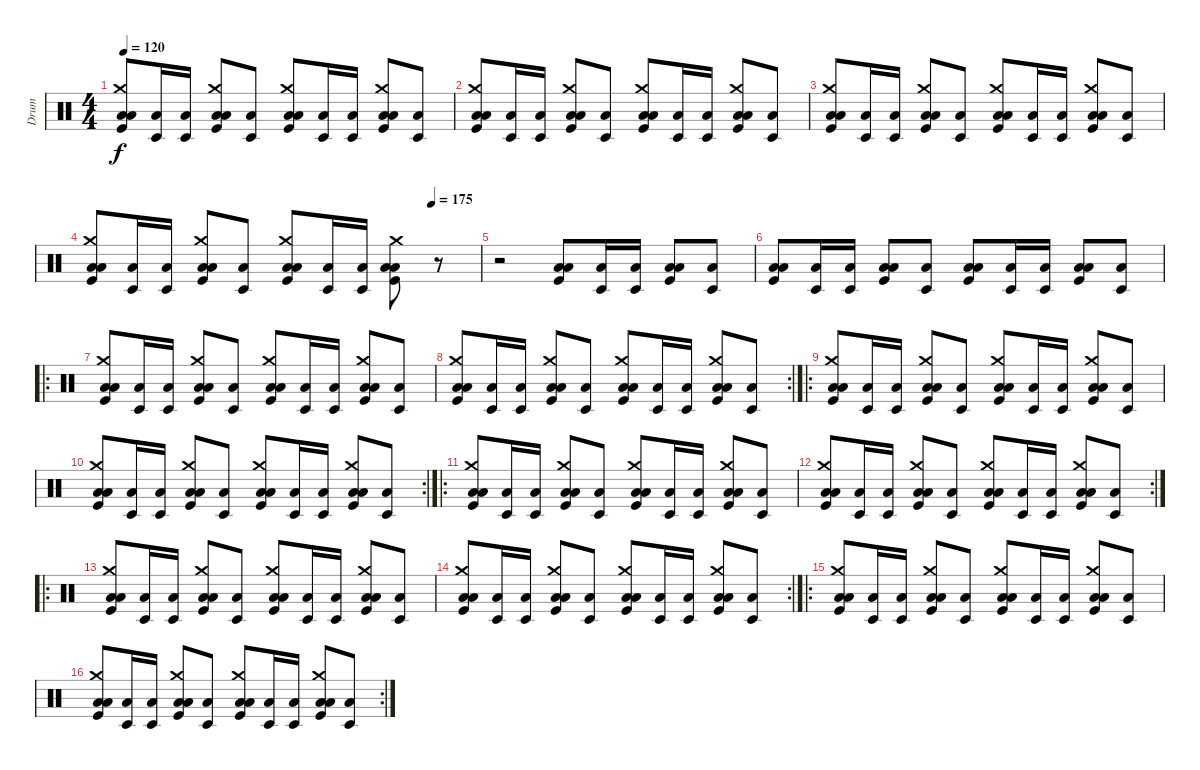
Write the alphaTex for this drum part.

\track ("Drum" "Drum") {instrument percussion}
\staff {score}
\articulation defaults
\ts (4 4)
\tempo 120
\clef neutral
\ks c
("Kick (hit)" "Low Tom (hit)" "Low Floor Tom (hit)" "Crash medium (hit)").8{dy f} ("Timbale low (hit)" "Low Tom (hit)").16 ("Timbale low (hit)" "Low Tom (hit)").16 ("Kick (hit)" "Low Tom (hit)" "Low Floor Tom (hit)" "Crash medium (hit)").8 ("Timbale low (hit)" "Low Tom (hit)").8 ("Kick (hit)" "Low Tom (hit)" "Low Floor Tom (hit)" "Crash medium (hit)").8 ("Timbale low (hit)" "Low Tom (hit)").16 ("Timbale low (hit)" "Low Tom (hit)").16 ("Kick (hit)" "Low Tom (hit)" "Low Floor Tom (hit)" "Crash medium (hit)").8 ("Timbale low (hit)" "Low Tom (hit)").8 |
("Kick (hit)" "Low Tom (hit)" "Low Floor Tom (hit)" "Crash medium (hit)").8 ("Timbale low (hit)" "Low Tom (hit)").16 ("Timbale low (hit)" "Low Tom (hit)").16 ("Kick (hit)" "Low Tom (hit)" "Low Floor Tom (hit)" "Crash medium (hit)").8 ("Timbale low (hit)" "Low Tom (hit)").8 ("Kick (hit)" "Low Tom (hit)" "Low Floor Tom (hit)" "Crash medium (hit)").8 ("Timbale low (hit)" "Low Tom (hit)").16 ("Timbale low (hit)" "Low Tom (hit)").16 ("Kick (hit)" "Low Tom (hit)" "Low Floor Tom (hit)" "Crash medium (hit)").8 ("Timbale low (hit)" "Low Tom (hit)").8 |
("Kick (hit)" "Low Tom (hit)" "Low Floor Tom (hit)" "Crash medium (hit)").8 ("Timbale low (hit)" "Low Tom (hit)").16 ("Timbale low (hit)" "Low Tom (hit)").16 ("Kick (hit)" "Low Tom (hit)" "Low Floor Tom (hit)" "Crash medium (hit)").8 ("Timbale low (hit)" "Low Tom (hit)").8 ("Kick (hit)" "Low Tom (hit)" "Low Floor Tom (hit)" "Crash medium (hit)").8 ("Timbale low (hit)" "Low Tom (hit)").16 ("Timbale low (hit)" "Low Tom (hit)").16 ("Kick (hit)" "Low Tom (hit)" "Low Floor Tom (hit)" "Crash medium (hit)").8 ("Timbale low (hit)" "Low Tom (hit)").8 |
\tempo (175 0.875)
("Kick (hit)" "Low Tom (hit)" "Low Floor Tom (hit)" "Crash medium (hit)").8 ("Timbale low (hit)" "Low Tom (hit)").16 ("Timbale low (hit)" "Low Tom (hit)").16 ("Kick (hit)" "Low Tom (hit)" "Low Floor Tom (hit)" "Crash medium (hit)").8 ("Timbale low (hit)" "Low Tom (hit)").8 ("Kick (hit)" "Low Tom (hit)" "Low Floor Tom (hit)" "Crash medium (hit)").8 ("Timbale low (hit)" "Low Tom (hit)").16 ("Timbale low (hit)" "Low Tom (hit)").16 ("Kick (hit)" "Low Tom (hit)" "Low Floor Tom (hit)" "Crash medium (hit)").8 r.8 |
r.2 ("Kick (hit)" "Low Tom (hit)" "Low Floor Tom (hit)").8 ("Timbale low (hit)" "Low Tom (hit)").16 ("Timbale low (hit)" "Low Tom (hit)").16 ("Kick (hit)" "Low Tom (hit)" "Low Floor Tom (hit)").8 ("Timbale low (hit)" "Low Tom (hit)").8 |
("Kick (hit)" "Low Tom (hit)" "Low Floor Tom (hit)").8 ("Timbale low (hit)" "Low Tom (hit)").16 ("Timbale low (hit)" "Low Tom (hit)").16 ("Kick (hit)" "Low Tom (hit)" "Low Floor Tom (hit)").8 ("Timbale low (hit)" "Low Tom (hit)").8 ("Kick (hit)" "Low Tom (hit)" "Low Floor Tom (hit)").8 ("Timbale low (hit)" "Low Tom (hit)").16 ("Timbale low (hit)" "Low Tom (hit)").16 ("Kick (hit)" "Low Tom (hit)" "Low Floor Tom (hit)").8 ("Timbale low (hit)" "Low Tom (hit)").8 |
\ro
("Kick (hit)" "Low Tom (hit)" "Low Floor Tom (hit)" "Crash medium (hit)").8 ("Timbale low (hit)" "Low Tom (hit)").16 ("Timbale low (hit)" "Low Tom (hit)").16 ("Kick (hit)" "Low Tom (hit)" "Low Floor Tom (hit)" "Crash medium (hit)").8 ("Timbale low (hit)" "Low Tom (hit)").8 ("Kick (hit)" "Low Tom (hit)" "Low Floor Tom (hit)" "Crash medium (hit)").8 ("Timbale low (hit)" "Low Tom (hit)").16 ("Timbale low (hit)" "Low Tom (hit)").16 ("Kick (hit)" "Low Tom (hit)" "Low Floor Tom (hit)" "Crash medium (hit)").8 ("Timbale low (hit)" "Low Tom (hit)").8 |
\rc 2
("Kick (hit)" "Low Tom (hit)" "Low Floor Tom (hit)" "Crash medium (hit)").8 ("Timbale low (hit)" "Low Tom (hit)").16 ("Timbale low (hit)" "Low Tom (hit)").16 ("Kick (hit)" "Low Tom (hit)" "Low Floor Tom (hit)" "Crash medium (hit)").8 ("Timbale low (hit)" "Low Tom (hit)").8 ("Kick (hit)" "Low Tom (hit)" "Low Floor Tom (hit)" "Crash medium (hit)").8 ("Timbale low (hit)" "Low Tom (hit)").16 ("Timbale low (hit)" "Low Tom (hit)").16 ("Kick (hit)" "Low Tom (hit)" "Low Floor Tom (hit)" "Crash medium (hit)").8 ("Timbale low (hit)" "Low Tom (hit)").8 |
\ro
("Kick (hit)" "Low Tom (hit)" "Low Floor Tom (hit)" "Crash medium (hit)").8 ("Timbale low (hit)" "Low Tom (hit)").16 ("Timbale low (hit)" "Low Tom (hit)").16 ("Kick (hit)" "Low Tom (hit)" "Low Floor Tom (hit)" "Crash medium (hit)").8 ("Timbale low (hit)" "Low Tom (hit)").8 ("Kick (hit)" "Low Tom (hit)" "Low Floor Tom (hit)" "Crash medium (hit)").8 ("Timbale low (hit)" "Low Tom (hit)").16 ("Timbale low (hit)" "Low Tom (hit)").16 ("Kick (hit)" "Low Tom (hit)" "Low Floor Tom (hit)" "Crash medium (hit)").8 ("Timbale low (hit)" "Low Tom (hit)").8 |
\rc 2
("Kick (hit)" "Low Tom (hit)" "Low Floor Tom (hit)" "Crash medium (hit)").8 ("Timbale low (hit)" "Low Tom (hit)").16 ("Timbale low (hit)" "Low Tom (hit)").16 ("Kick (hit)" "Low Tom (hit)" "Low Floor Tom (hit)" "Crash medium (hit)").8 ("Timbale low (hit)" "Low Tom (hit)").8 ("Kick (hit)" "Low Tom (hit)" "Low Floor Tom (hit)" "Crash medium (hit)").8 ("Timbale low (hit)" "Low Tom (hit)").16 ("Timbale low (hit)" "Low Tom (hit)").16 ("Kick (hit)" "Low Tom (hit)" "Low Floor Tom (hit)" "Crash medium (hit)").8 ("Timbale low (hit)" "Low Tom (hit)").8 |
\ro
("Kick (hit)" "Low Tom (hit)" "Low Floor Tom (hit)" "Crash medium (hit)").8 ("Timbale low (hit)" "Low Tom (hit)").16 ("Timbale low (hit)" "Low Tom (hit)").16 ("Kick (hit)" "Low Tom (hit)" "Low Floor Tom (hit)" "Crash medium (hit)").8 ("Timbale low (hit)" "Low Tom (hit)").8 ("Kick (hit)" "Low Tom (hit)" "Low Floor Tom (hit)" "Crash medium (hit)").8 ("Timbale low (hit)" "Low Tom (hit)").16 ("Timbale low (hit)" "Low Tom (hit)").16 ("Kick (hit)" "Low Tom (hit)" "Low Floor Tom (hit)" "Crash medium (hit)").8 ("Timbale low (hit)" "Low Tom (hit)").8 |
\rc 2
("Kick (hit)" "Low Tom (hit)" "Low Floor Tom (hit)" "Crash medium (hit)").8 ("Timbale low (hit)" "Low Tom (hit)").16 ("Timbale low (hit)" "Low Tom (hit)").16 ("Kick (hit)" "Low Tom (hit)" "Low Floor Tom (hit)" "Crash medium (hit)").8 ("Timbale low (hit)" "Low Tom (hit)").8 ("Kick (hit)" "Low Tom (hit)" "Low Floor Tom (hit)" "Crash medium (hit)").8 ("Timbale low (hit)" "Low Tom (hit)").16 ("Timbale low (hit)" "Low Tom (hit)").16 ("Kick (hit)" "Low Tom (hit)" "Low Floor Tom (hit)" "Crash medium (hit)").8 ("Timbale low (hit)" "Low Tom (hit)").8 |
\ro
("Kick (hit)" "Low Tom (hit)" "Low Floor Tom (hit)" "Crash medium (hit)").8 ("Timbale low (hit)" "Low Tom (hit)").16 ("Timbale low (hit)" "Low Tom (hit)").16 ("Kick (hit)" "Low Tom (hit)" "Low Floor Tom (hit)" "Crash medium (hit)").8 ("Timbale low (hit)" "Low Tom (hit)").8 ("Kick (hit)" "Low Tom (hit)" "Low Floor Tom (hit)" "Crash medium (hit)").8 ("Timbale low (hit)" "Low Tom (hit)").16 ("Timbale low (hit)" "Low Tom (hit)").16 ("Kick (hit)" "Low Tom (hit)" "Low Floor Tom (hit)" "Crash medium (hit)").8 ("Timbale low (hit)" "Low Tom (hit)").8 |
\rc 2
("Kick (hit)" "Low Tom (hit)" "Low Floor Tom (hit)" "Crash medium (hit)").8 ("Timbale low (hit)" "Low Tom (hit)").16 ("Timbale low (hit)" "Low Tom (hit)").16 ("Kick (hit)" "Low Tom (hit)" "Low Floor Tom (hit)" "Crash medium (hit)").8 ("Timbale low (hit)" "Low Tom (hit)").8 ("Kick (hit)" "Low Tom (hit)" "Low Floor Tom (hit)" "Crash medium (hit)").8 ("Timbale low (hit)" "Low Tom (hit)").16 ("Timbale low (hit)" "Low Tom (hit)").16 ("Kick (hit)" "Low Tom (hit)" "Low Floor Tom (hit)" "Crash medium (hit)").8 ("Timbale low (hit)" "Low Tom (hit)").8 |
\ro
("Kick (hit)" "Low Tom (hit)" "Low Floor Tom (hit)" "Crash medium (hit)").8 ("Timbale low (hit)" "Low Tom (hit)").16 ("Timbale low (hit)" "Low Tom (hit)").16 ("Kick (hit)" "Low Tom (hit)" "Low Floor Tom (hit)" "Crash medium (hit)").8 ("Timbale low (hit)" "Low Tom (hit)").8 ("Kick (hit)" "Low Tom (hit)" "Low Floor Tom (hit)" "Crash medium (hit)").8 ("Timbale low (hit)" "Low Tom (hit)").16 ("Timbale low (hit)" "Low Tom (hit)").16 ("Kick (hit)" "Low Tom (hit)" "Low Floor Tom (hit)" "Crash medium (hit)").8 ("Timbale low (hit)" "Low Tom (hit)").8 |
\rc 2
("Kick (hit)" "Low Tom (hit)" "Low Floor Tom (hit)" "Crash medium (hit)").8 ("Timbale low (hit)" "Low Tom (hit)").16 ("Timbale low (hit)" "Low Tom (hit)").16 ("Kick (hit)" "Low Tom (hit)" "Low Floor Tom (hit)" "Crash medium (hit)").8 ("Timbale low (hit)" "Low Tom (hit)").8 ("Kick (hit)" "Low Tom (hit)" "Low Floor Tom (hit)" "Crash medium (hit)").8 ("Timbale low (hit)" "Low Tom (hit)").16 ("Timbale low (hit)" "Low Tom (hit)").16 ("Kick (hit)" "Low Tom (hit)" "Low Floor Tom (hit)" "Crash medium (hit)").8 ("Timbale low (hit)" "Low Tom (hit)").8
